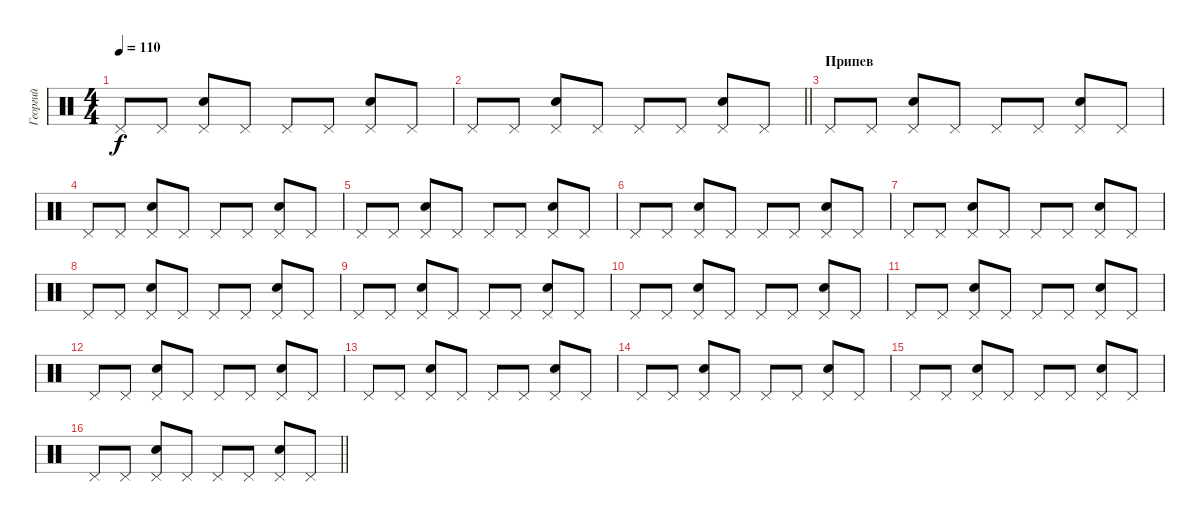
\track ("Георгий" "Георгий") {instrument percussion}
\staff {score}
\articulation defaults
\ts (4 4)
\tempo 110
\clef neutral
\ks c "Pedal Hi-Hat (hit)".8{dy f} "Pedal Hi-Hat (hit)".8
("Pedal Hi-Hat (hit)" "Snare (hit) 2").8 "Pedal Hi-Hat (hit)".8 "Pedal Hi-Hat (hit)".8 "Pedal Hi-Hat (hit)".8 ("Pedal Hi-Hat (hit)" "Snare (hit) 2").8 "Pedal Hi-Hat (hit)".8 |
\barLineRight lightlight "Pedal Hi-Hat (hit)".8 "Pedal Hi-Hat (hit)".8
("Pedal Hi-Hat (hit)" "Snare (hit) 2").8 "Pedal Hi-Hat (hit)".8 "Pedal Hi-Hat (hit)".8 "Pedal Hi-Hat (hit)".8 ("Pedal Hi-Hat (hit)" "Snare (hit) 2").8 "Pedal Hi-Hat (hit)".8 |
\section ("" "Припев")
"Pedal Hi-Hat (hit)".8 "Pedal Hi-Hat (hit)".8 ("Pedal Hi-Hat (hit)" "Snare (hit) 2").8 "Pedal Hi-Hat (hit)".8 "Pedal Hi-Hat (hit)".8 "Pedal Hi-Hat (hit)".8 ("Pedal Hi-Hat (hit)" "Snare (hit) 2").8 "Pedal Hi-Hat (hit)".8 |
"Pedal Hi-Hat (hit)".8 "Pedal Hi-Hat (hit)".8 ("Pedal Hi-Hat (hit)" "Snare (hit) 2").8 "Pedal Hi-Hat (hit)".8 "Pedal Hi-Hat (hit)".8 "Pedal Hi-Hat (hit)".8 ("Pedal Hi-Hat (hit)" "Snare (hit) 2").8 "Pedal Hi-Hat (hit)".8 |
"Pedal Hi-Hat (hit)".8 "Pedal Hi-Hat (hit)".8 ("Pedal Hi-Hat (hit)" "Snare (hit) 2").8 "Pedal Hi-Hat (hit)".8 "Pedal Hi-Hat (hit)".8 "Pedal Hi-Hat (hit)".8 ("Pedal Hi-Hat (hit)" "Snare (hit) 2").8 "Pedal Hi-Hat (hit)".8 |
"Pedal Hi-Hat (hit)".8 "Pedal Hi-Hat (hit)".8 ("Pedal Hi-Hat (hit)" "Snare (hit) 2").8 "Pedal Hi-Hat (hit)".8 "Pedal Hi-Hat (hit)".8 "Pedal Hi-Hat (hit)".8 ("Pedal Hi-Hat (hit)" "Snare (hit) 2").8 "Pedal Hi-Hat (hit)".8 |
"Pedal Hi-Hat (hit)".8 "Pedal Hi-Hat (hit)".8 ("Pedal Hi-Hat (hit)" "Snare (hit) 2").8 "Pedal Hi-Hat (hit)".8 "Pedal Hi-Hat (hit)".8 "Pedal Hi-Hat (hit)".8 ("Pedal Hi-Hat (hit)" "Snare (hit) 2").8 "Pedal Hi-Hat (hit)".8 |
"Pedal Hi-Hat (hit)".8 "Pedal Hi-Hat (hit)".8 ("Pedal Hi-Hat (hit)" "Snare (hit) 2").8 "Pedal Hi-Hat (hit)".8 "Pedal Hi-Hat (hit)".8 "Pedal Hi-Hat (hit)".8 ("Pedal Hi-Hat (hit)" "Snare (hit) 2").8 "Pedal Hi-Hat (hit)".8 |
"Pedal Hi-Hat (hit)".8 "Pedal Hi-Hat (hit)".8 ("Pedal Hi-Hat (hit)" "Snare (hit) 2").8 "Pedal Hi-Hat (hit)".8 "Pedal Hi-Hat (hit)".8 "Pedal Hi-Hat (hit)".8 ("Pedal Hi-Hat (hit)" "Snare (hit) 2").8 "Pedal Hi-Hat (hit)".8 |
"Pedal Hi-Hat (hit)".8 "Pedal Hi-Hat (hit)".8 ("Pedal Hi-Hat (hit)" "Snare (hit) 2").8 "Pedal Hi-Hat (hit)".8 "Pedal Hi-Hat (hit)".8 "Pedal Hi-Hat (hit)".8 ("Pedal Hi-Hat (hit)" "Snare (hit) 2").8 "Pedal Hi-Hat (hit)".8 |
"Pedal Hi-Hat (hit)".8 "Pedal Hi-Hat (hit)".8 ("Pedal Hi-Hat (hit)" "Snare (hit) 2").8 "Pedal Hi-Hat (hit)".8 "Pedal Hi-Hat (hit)".8 "Pedal Hi-Hat (hit)".8 ("Pedal Hi-Hat (hit)" "Snare (hit) 2").8 "Pedal Hi-Hat (hit)".8 |
"Pedal Hi-Hat (hit)".8 "Pedal Hi-Hat (hit)".8 ("Pedal Hi-Hat (hit)" "Snare (hit) 2").8 "Pedal Hi-Hat (hit)".8 "Pedal Hi-Hat (hit)".8 "Pedal Hi-Hat (hit)".8 ("Pedal Hi-Hat (hit)" "Snare (hit) 2").8 "Pedal Hi-Hat (hit)".8 |
"Pedal Hi-Hat (hit)".8 "Pedal Hi-Hat (hit)".8 ("Pedal Hi-Hat (hit)" "Snare (hit) 2").8 "Pedal Hi-Hat (hit)".8 "Pedal Hi-Hat (hit)".8 "Pedal Hi-Hat (hit)".8 ("Pedal Hi-Hat (hit)" "Snare (hit) 2").8 "Pedal Hi-Hat (hit)".8 |
"Pedal Hi-Hat (hit)".8 "Pedal Hi-Hat (hit)".8 ("Pedal Hi-Hat (hit)" "Snare (hit) 2").8 "Pedal Hi-Hat (hit)".8 "Pedal Hi-Hat (hit)".8 "Pedal Hi-Hat (hit)".8 ("Pedal Hi-Hat (hit)" "Snare (hit) 2").8 "Pedal Hi-Hat (hit)".8 |
"Pedal Hi-Hat (hit)".8 "Pedal Hi-Hat (hit)".8 ("Pedal Hi-Hat (hit)" "Snare (hit) 2").8 "Pedal Hi-Hat (hit)".8 "Pedal Hi-Hat (hit)".8 "Pedal Hi-Hat (hit)".8 ("Pedal Hi-Hat (hit)" "Snare (hit) 2").8 "Pedal Hi-Hat (hit)".8 |
\barLineRight lightlight "Pedal Hi-Hat (hit)".8 "Pedal Hi-Hat (hit)".8
("Pedal Hi-Hat (hit)" "Snare (hit) 2").8 "Pedal Hi-Hat (hit)".8 "Pedal Hi-Hat (hit)".8 "Pedal Hi-Hat (hit)".8 ("Pedal Hi-Hat (hit)" "Snare (hit) 2").8 "Pedal Hi-Hat (hit)".8
